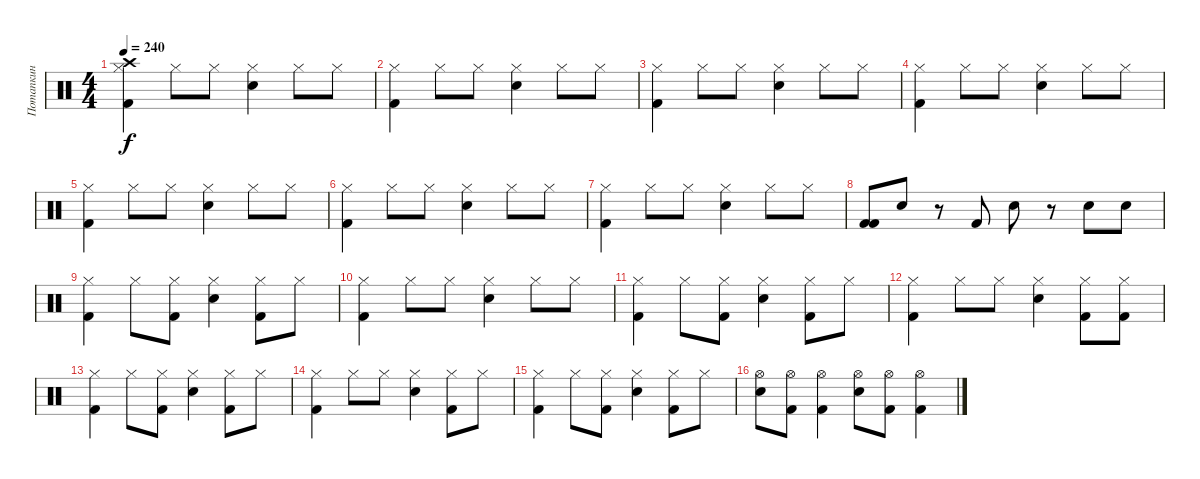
\track ("Потапкин" "Потапкин") {instrument percussion}
\staff {score}
\articulation defaults
\ts (4 4)
\tempo 240
\clef neutral
\ks c
("Crash high (hit)" "Hi-Hat (closed)" "Kick (hit) 2").4{dy f} "Hi-Hat (closed)".8 "Hi-Hat (closed)".8 ("Hi-Hat (closed)" "Electric Snare (hit)").4 "Hi-Hat (closed)".8 "Hi-Hat (closed)".8 |
("Hi-Hat (closed)" "Kick (hit) 2").4 "Hi-Hat (closed)".8 "Hi-Hat (closed)".8 ("Hi-Hat (closed)" "Electric Snare (hit)").4 "Hi-Hat (closed)".8 "Hi-Hat (closed)".8 |
("Hi-Hat (closed)" "Kick (hit) 2").4 "Hi-Hat (closed)".8 "Hi-Hat (closed)".8 ("Hi-Hat (closed)" "Electric Snare (hit)").4 "Hi-Hat (closed)".8 "Hi-Hat (closed)".8 |
("Hi-Hat (closed)" "Kick (hit) 2").4 "Hi-Hat (closed)".8 "Hi-Hat (closed)".8 ("Hi-Hat (closed)" "Electric Snare (hit)").4 "Hi-Hat (closed)".8 "Hi-Hat (closed)".8 |
("Hi-Hat (closed)" "Kick (hit) 2").4 "Hi-Hat (closed)".8 "Hi-Hat (closed)".8 ("Hi-Hat (closed)" "Electric Snare (hit)").4 "Hi-Hat (closed)".8 "Hi-Hat (closed)".8 |
("Hi-Hat (closed)" "Kick (hit) 2").4 "Hi-Hat (closed)".8 "Hi-Hat (closed)".8 ("Hi-Hat (closed)" "Electric Snare (hit)").4 "Hi-Hat (closed)".8 "Hi-Hat (closed)".8 |
("Hi-Hat (closed)" "Kick (hit) 2").4 "Hi-Hat (closed)".8 "Hi-Hat (closed)".8 ("Hi-Hat (closed)" "Electric Snare (hit)").4 "Hi-Hat (closed)".8 "Hi-Hat (closed)".8 |
("Kick (hit) 2" "Kick (hit) 2").8 "Electric Snare (hit)".8 r.8 "Kick (hit) 2".8 "Electric Snare (hit)".8 r.8 "Electric Snare (hit)".8 "Electric Snare (hit)".8 |
("Hi-Hat (closed)" "Kick (hit) 2").4 "Hi-Hat (closed)".8 ("Hi-Hat (closed)" "Kick (hit) 2").8 ("Hi-Hat (closed)" "Electric Snare (hit)").4 ("Kick (hit) 2" "Hi-Hat (closed)").8 "Hi-Hat (closed)".8 |
("Hi-Hat (closed)" "Kick (hit) 2").4 "Hi-Hat (closed)".8 "Hi-Hat (closed)".8 ("Hi-Hat (closed)" "Electric Snare (hit)").4 "Hi-Hat (closed)".8 "Hi-Hat (closed)".8 |
("Hi-Hat (closed)" "Kick (hit) 2").4 "Hi-Hat (closed)".8 ("Hi-Hat (closed)" "Kick (hit) 2").8 ("Hi-Hat (closed)" "Electric Snare (hit)").4 ("Kick (hit) 2" "Hi-Hat (closed)").8 "Hi-Hat (closed)".8 |
("Hi-Hat (closed)" "Kick (hit) 2").4 "Hi-Hat (closed)".8 "Hi-Hat (closed)".8 ("Hi-Hat (closed)" "Electric Snare (hit)").4 ("Kick (hit) 2" "Hi-Hat (closed)").8 ("Hi-Hat (closed)" "Kick (hit) 2").8 |
("Hi-Hat (closed)" "Kick (hit) 2").4 "Hi-Hat (closed)".8 ("Hi-Hat (closed)" "Kick (hit) 2").8 ("Hi-Hat (closed)" "Electric Snare (hit)").4 ("Kick (hit) 2" "Hi-Hat (closed)").8 "Hi-Hat (closed)".8 |
("Hi-Hat (closed)" "Kick (hit) 2").4 "Hi-Hat (closed)".8 "Hi-Hat (closed)".8 ("Hi-Hat (closed)" "Electric Snare (hit)").4 ("Kick (hit) 2" "Hi-Hat (closed)").8 "Hi-Hat (closed)".8 |
("Hi-Hat (closed)" "Kick (hit) 2").4 "Hi-Hat (closed)".8 ("Hi-Hat (closed)" "Kick (hit) 2").8 ("Hi-Hat (closed)" "Electric Snare (hit)").4 ("Kick (hit) 2" "Hi-Hat (closed)").8 "Hi-Hat (closed)".8 |
("Hi-Hat (open)" "Electric Snare (hit)").8 ("Kick (hit) 2" "Hi-Hat (open)").8 ("Kick (hit) 2" "Hi-Hat (open)").4 ("Hi-Hat (open)" "Electric Snare (hit)").8 ("Kick (hit) 2" "Hi-Hat (open)").8 ("Kick (hit) 2" "Hi-Hat (open)").4
